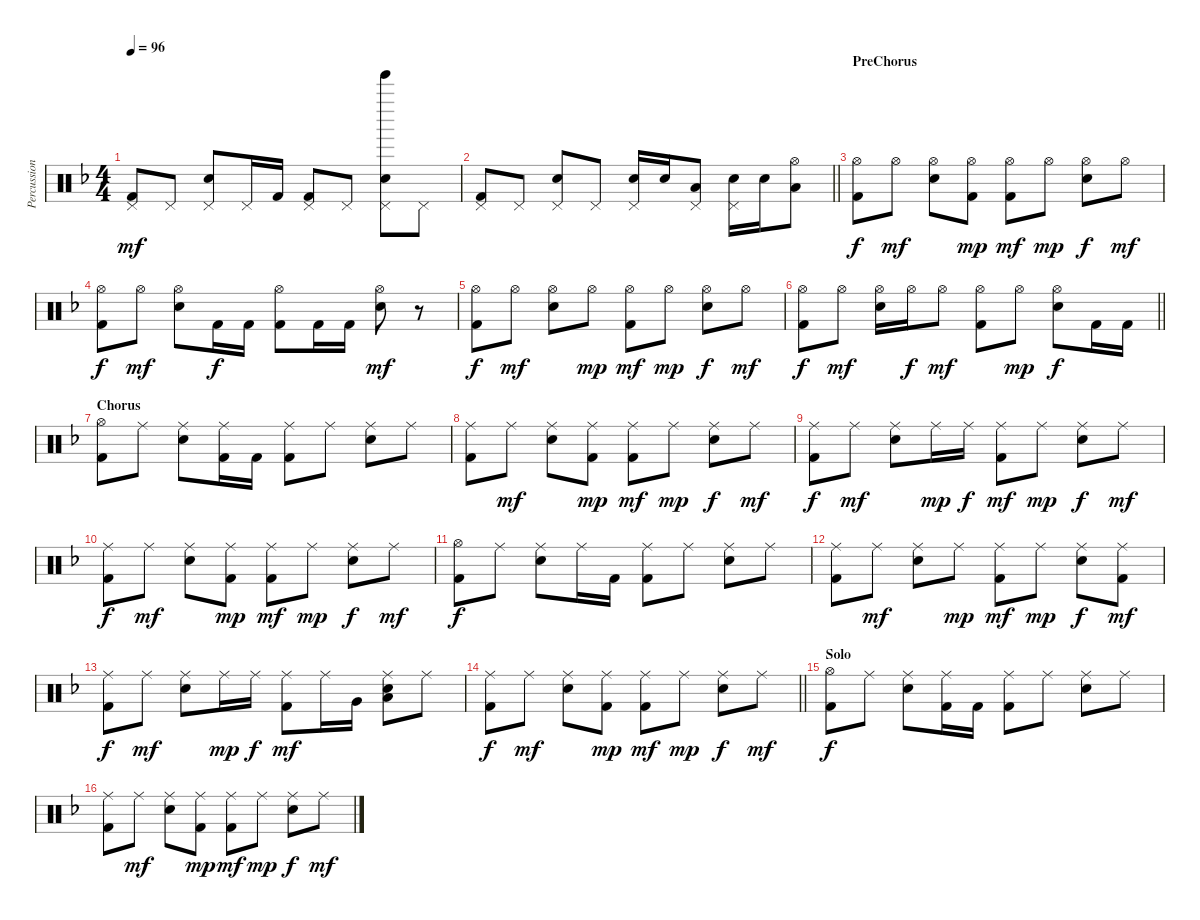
\track ("Percussion" "Percussion") {instrument percussion}
\staff {score}
\articulation defaults
\ts (4 4)
\tempo 96
\clef neutral
\ks dminor
("Pedal Hi-Hat (hit)" "Kick (hit) 2").8{dy mf} "Pedal Hi-Hat (hit)".8 ("Pedal Hi-Hat (hit)" "Electric Snare (hit)").8 "Pedal Hi-Hat (hit)".16 "Kick (hit) 2".16 ("Pedal Hi-Hat (hit)" "Kick (hit) 2").8 "Pedal Hi-Hat (hit)".8 ("Pedal Hi-Hat (hit)" "Tinkle Bell (hit)" "Electric Snare (hit)").8 "Pedal Hi-Hat (hit)".8 |
\barLineRight lightlight
("Pedal Hi-Hat (hit)" "Kick (hit) 2").8 "Pedal Hi-Hat (hit)".8 ("Pedal Hi-Hat (hit)" "Electric Snare (hit)").8 "Pedal Hi-Hat (hit)".8 ("Pedal Hi-Hat (hit)" "Electric Snare (hit)").16 "Electric Snare (hit)".16 ("Pedal Hi-Hat (hit)" "Low Floor Tom (hit)").8 ("Pedal Hi-Hat (hit)" "Electric Snare (hit)").16 "Electric Snare (hit)".16 ("Hi-Hat (open)" "Low Floor Tom (hit)").8 |
\section ("" "PreChorus")
("Hi-Hat (open)" "Kick (hit) 2").8{dy f} "Hi-Hat (open)".8{dy mf} ("Hi-Hat (open)" "Electric Snare (hit)").8 ("Hi-Hat (open)" "Kick (hit) 2").8{dy mp} ("Hi-Hat (open)" "Kick (hit) 2").8{dy mf} "Hi-Hat (open)".8{dy mp} ("Hi-Hat (open)" "Electric Snare (hit)").8{dy f} "Hi-Hat (open)".8{dy mf} |
("Hi-Hat (open)" "Kick (hit) 2").8{dy f} "Hi-Hat (open)".8{dy mf} ("Hi-Hat (open)" "Electric Snare (hit)").8 "Kick (hit) 2".16{dy f} "Kick (hit) 2".16 ("Hi-Hat (open)" "Kick (hit) 2").8 "Kick (hit) 2".16 "Kick (hit) 2".16 ("Hi-Hat (open)" "Electric Snare (hit)").8{dy mf} r.8 |
("Hi-Hat (open)" "Kick (hit) 2").8{dy f} "Hi-Hat (open)".8{dy mf} ("Hi-Hat (open)" "Electric Snare (hit)").8 "Hi-Hat (open)".8{dy mp} ("Hi-Hat (open)" "Kick (hit) 2").8{dy mf} "Hi-Hat (open)".8{dy mp} ("Hi-Hat (open)" "Electric Snare (hit)").8{dy f} "Hi-Hat (open)".8{dy mf} |
\barLineRight lightlight
("Hi-Hat (open)" "Kick (hit) 2").8{dy f} "Hi-Hat (open)".8{dy mf} ("Hi-Hat (open)" "Electric Snare (hit)").16 "Hi-Hat (open)".16{dy f} "Hi-Hat (open)".8{dy mf} ("Hi-Hat (open)" "Kick (hit) 2").8 "Hi-Hat (open)".8{dy mp} ("Hi-Hat (open)" "Electric Snare (hit)").8{dy f} "Kick (hit) 2".16 "Kick (hit) 2".16 |
\section ("" "Chorus")
("Hi-Hat (open)" "Kick (hit) 2").8 "Ride (middle)".8 ("Ride (middle)" "Electric Snare (hit)").8 ("Ride (middle)" "Kick (hit) 2").16 "Kick (hit) 2".16 ("Ride (middle)" "Kick (hit) 2").8 "Ride (middle)".8 ("Ride (middle)" "Electric Snare (hit)").8 "Ride (middle)".8 |
("Ride (middle)" "Kick (hit) 2").8 "Ride (middle)".8{dy mf} ("Ride (middle)" "Electric Snare (hit)").8 ("Ride (middle)" "Kick (hit) 2").8{dy mp} ("Ride (middle)" "Kick (hit) 2").8{dy mf} "Ride (middle)".8{dy mp} ("Ride (middle)" "Electric Snare (hit)").8{dy f} "Ride (middle)".8{dy mf} |
("Ride (middle)" "Kick (hit) 2").8{dy f} "Ride (middle)".8{dy mf} ("Ride (middle)" "Electric Snare (hit)").8 "Ride (middle)".16{dy mp} "Ride (middle)".16{dy f} ("Ride (middle)" "Kick (hit) 2").8{dy mf} "Ride (middle)".8{dy mp} ("Ride (middle)" "Electric Snare (hit)").8{dy f} "Ride (middle)".8{dy mf} |
("Ride (middle)" "Kick (hit) 2").8{dy f} "Ride (middle)".8{dy mf} ("Ride (middle)" "Electric Snare (hit)").8 ("Ride (middle)" "Kick (hit) 2").8{dy mp} ("Ride (middle)" "Kick (hit) 2").8{dy mf} "Ride (middle)".8{dy mp} ("Ride (middle)" "Electric Snare (hit)").8{dy f} "Ride (middle)".8{dy mf} |
("Hi-Hat (open)" "Kick (hit) 2").8{dy f} "Ride (middle)".8 ("Ride (middle)" "Electric Snare (hit)").8 "Ride (middle)".16 "Kick (hit) 2".16 ("Ride (middle)" "Kick (hit) 2").8 "Ride (middle)".8 ("Ride (middle)" "Electric Snare (hit)").8 "Ride (middle)".8 |
("Ride (middle)" "Kick (hit) 2").8 "Ride (middle)".8{dy mf} ("Ride (middle)" "Electric Snare (hit)").8 "Ride (middle)".8{dy mp} ("Ride (middle)" "Kick (hit) 2").8{dy mf} "Ride (middle)".8{dy mp} ("Ride (middle)" "Electric Snare (hit)").8{dy f} ("Ride (middle)" "Kick (hit) 2").8{dy mf} |
("Ride (middle)" "Kick (hit) 2").8{dy f} "Ride (middle)".8{dy mf} ("Ride (middle)" "Electric Snare (hit)").8 "Ride (middle)".16{dy mp} "Ride (middle)".16{dy f} ("Ride (middle)" "Kick (hit) 2").8{dy mf} "Ride (middle)".16 "Very Low Tom (hit)".16 ("Ride (middle)" "Electric Snare (hit)" "Low Floor Tom (hit)").8 "Ride (middle)".8 |
\barLineRight lightlight
("Ride (middle)" "Kick (hit) 2").8{dy f} "Ride (middle)".8{dy mf} ("Ride (middle)" "Electric Snare (hit)").8 ("Ride (middle)" "Kick (hit) 2").8{dy mp} ("Ride (middle)" "Kick (hit) 2").8{dy mf} "Ride (middle)".8{dy mp} ("Ride (middle)" "Electric Snare (hit)").8{dy f} "Ride (middle)".8{dy mf} |
\section ("" "Solo")
("Hi-Hat (open)" "Kick (hit) 2").8{dy f} "Ride (middle)".8 ("Ride (middle)" "Electric Snare (hit)").8 ("Ride (middle)" "Kick (hit) 2").16 "Kick (hit) 2".16 ("Ride (middle)" "Kick (hit) 2").8 "Ride (middle)".8 ("Ride (middle)" "Electric Snare (hit)").8 "Ride (middle)".8 |
("Ride (middle)" "Kick (hit) 2").8 "Ride (middle)".8{dy mf} ("Ride (middle)" "Electric Snare (hit)").8 ("Ride (middle)" "Kick (hit) 2").8{dy mp} ("Ride (middle)" "Kick (hit) 2").8{dy mf} "Ride (middle)".8{dy mp} ("Ride (middle)" "Electric Snare (hit)").8{dy f} "Ride (middle)".8{dy mf}
